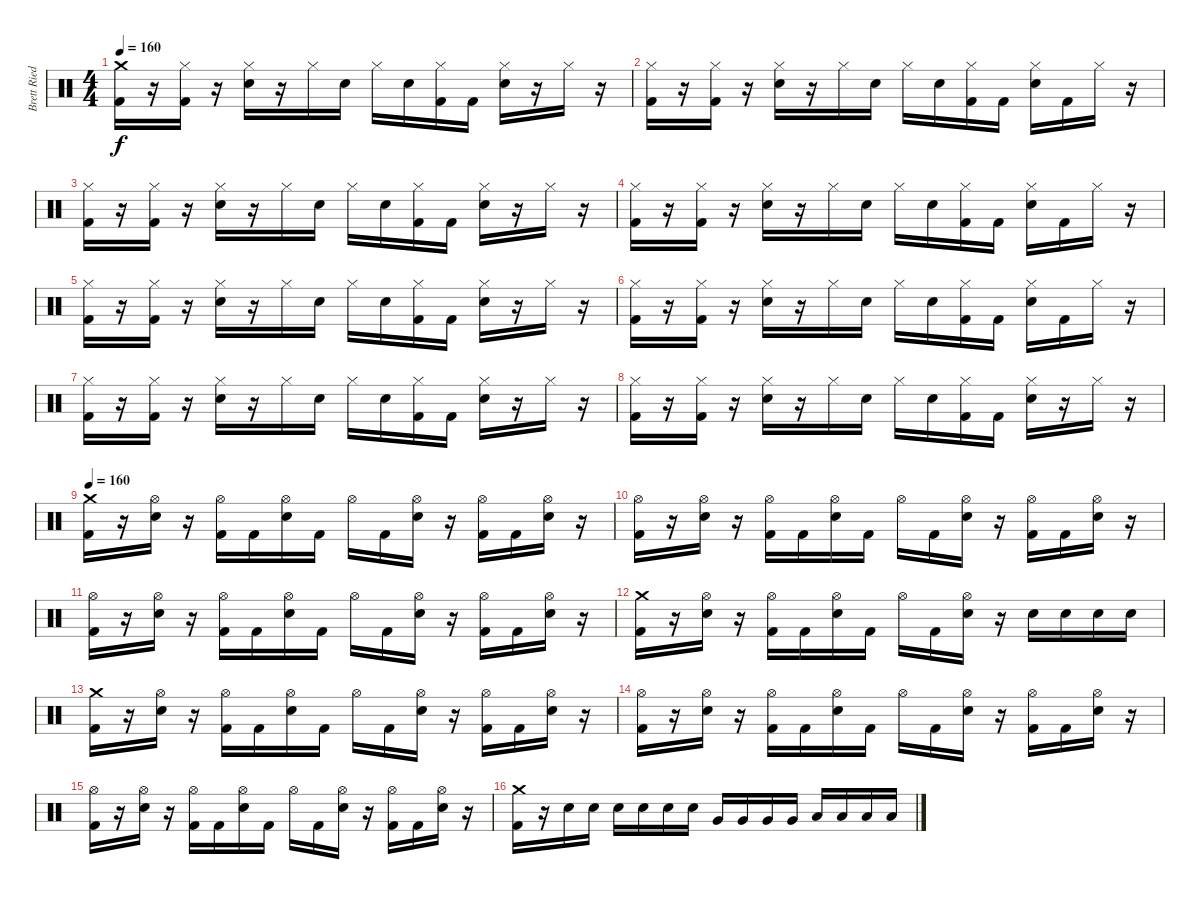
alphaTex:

\track ("Brett Ried" "Brett Ried") {instrument percussion}
\staff {score}
\articulation defaults
\ts (4 4)
\tempo 160
\tempo 140
\tempo 160
\clef neutral
\ks c
("Crash medium (hit)" "Kick (hit) 2").16{dy f} r.16 ("Hi-Hat (closed)" "Kick (hit) 2").16 r.16 ("Hi-Hat (closed)" "Snare (hit) 2").16 r.16 "Hi-Hat (closed)".16 "Snare (hit) 2".16 "Hi-Hat (closed)".16 "Snare (hit) 2".16 ("Hi-Hat (closed)" "Kick (hit) 2").16 "Kick (hit) 2".16 ("Hi-Hat (closed)" "Snare (hit) 2").16 r.16 "Hi-Hat (closed)".16 r.16 |
("Hi-Hat (closed)" "Kick (hit) 2").16 r.16 ("Hi-Hat (closed)" "Kick (hit) 2").16 r.16 ("Hi-Hat (closed)" "Snare (hit) 2").16 r.16 "Hi-Hat (closed)".16 "Snare (hit) 2".16 "Hi-Hat (closed)".16 "Snare (hit) 2".16 ("Hi-Hat (closed)" "Kick (hit) 2").16 "Kick (hit) 2".16 ("Hi-Hat (closed)" "Snare (hit) 2").16 "Kick (hit) 2".16 "Hi-Hat (closed)".16 r.16 |
("Hi-Hat (closed)" "Kick (hit) 2").16 r.16 ("Hi-Hat (closed)" "Kick (hit) 2").16 r.16 ("Hi-Hat (closed)" "Snare (hit) 2").16 r.16 "Hi-Hat (closed)".16 "Snare (hit) 2".16 "Hi-Hat (closed)".16 "Snare (hit) 2".16 ("Hi-Hat (closed)" "Kick (hit) 2").16 "Kick (hit) 2".16 ("Hi-Hat (closed)" "Snare (hit) 2").16 r.16 "Hi-Hat (closed)".16 r.16 |
("Hi-Hat (closed)" "Kick (hit) 2").16 r.16 ("Hi-Hat (closed)" "Kick (hit) 2").16 r.16 ("Hi-Hat (closed)" "Snare (hit) 2").16 r.16 "Hi-Hat (closed)".16 "Snare (hit) 2".16 "Hi-Hat (closed)".16 "Snare (hit) 2".16 ("Hi-Hat (closed)" "Kick (hit) 2").16 "Kick (hit) 2".16 ("Hi-Hat (closed)" "Snare (hit) 2").16 "Kick (hit) 2".16 "Hi-Hat (closed)".16 r.16 |
("Hi-Hat (closed)" "Kick (hit) 2").16 r.16 ("Hi-Hat (closed)" "Kick (hit) 2").16 r.16 ("Hi-Hat (closed)" "Snare (hit) 2").16 r.16 "Hi-Hat (closed)".16 "Snare (hit) 2".16 "Hi-Hat (closed)".16 "Snare (hit) 2".16 ("Hi-Hat (closed)" "Kick (hit) 2").16 "Kick (hit) 2".16 ("Hi-Hat (closed)" "Snare (hit) 2").16 r.16 "Hi-Hat (closed)".16 r.16 |
("Hi-Hat (closed)" "Kick (hit) 2").16 r.16 ("Hi-Hat (closed)" "Kick (hit) 2").16 r.16 ("Hi-Hat (closed)" "Snare (hit) 2").16 r.16 "Hi-Hat (closed)".16 "Snare (hit) 2".16 "Hi-Hat (closed)".16 "Snare (hit) 2".16 ("Hi-Hat (closed)" "Kick (hit) 2").16 "Kick (hit) 2".16 ("Hi-Hat (closed)" "Snare (hit) 2").16 "Kick (hit) 2".16 "Hi-Hat (closed)".16 r.16 |
("Hi-Hat (closed)" "Kick (hit) 2").16 r.16 ("Hi-Hat (closed)" "Kick (hit) 2").16 r.16 ("Hi-Hat (closed)" "Snare (hit) 2").16 r.16 "Hi-Hat (closed)".16 "Snare (hit) 2".16 "Hi-Hat (closed)".16 "Snare (hit) 2".16 ("Hi-Hat (closed)" "Kick (hit) 2").16 "Kick (hit) 2".16 ("Hi-Hat (closed)" "Snare (hit) 2").16 r.16 "Hi-Hat (closed)".16 r.16 |
("Hi-Hat (closed)" "Kick (hit) 2").16 r.16 ("Hi-Hat (closed)" "Kick (hit) 2").16 r.16 ("Hi-Hat (closed)" "Snare (hit) 2").16 r.16 "Hi-Hat (closed)".16 "Snare (hit) 2".16 "Hi-Hat (closed)".16 "Snare (hit) 2".16 ("Hi-Hat (closed)" "Kick (hit) 2").16 "Kick (hit) 2".16 ("Hi-Hat (closed)" "Snare (hit) 2").16 r.16 "Hi-Hat (closed)".16 r.16 |
\tempo 160
("Crash medium (hit)" "Kick (hit) 2").16 r.16 ("Hi-Hat (open)" "Snare (hit) 2").16 r.16 ("Hi-Hat (open)" "Kick (hit) 2").16 "Kick (hit) 2".16 ("Hi-Hat (open)" "Snare (hit) 2").16 "Kick (hit) 2".16 "Hi-Hat (open)".16 "Kick (hit) 2".16 ("Hi-Hat (open)" "Snare (hit) 2").16 r.16 ("Hi-Hat (open)" "Kick (hit) 2").16 "Kick (hit) 2".16 ("Hi-Hat (open)" "Snare (hit) 2").16 r.16 |
("Hi-Hat (open)" "Kick (hit) 2").16 r.16 ("Hi-Hat (open)" "Snare (hit) 2").16 r.16 ("Hi-Hat (open)" "Kick (hit) 2").16 "Kick (hit) 2".16 ("Hi-Hat (open)" "Snare (hit) 2").16 "Kick (hit) 2".16 "Hi-Hat (open)".16 "Kick (hit) 2".16 ("Hi-Hat (open)" "Snare (hit) 2").16 r.16 ("Hi-Hat (open)" "Kick (hit) 2").16 "Kick (hit) 2".16 ("Hi-Hat (open)" "Snare (hit) 2").16 r.16 |
("Hi-Hat (open)" "Kick (hit) 2").16 r.16 ("Hi-Hat (open)" "Snare (hit) 2").16 r.16 ("Hi-Hat (open)" "Kick (hit) 2").16 "Kick (hit) 2".16 ("Hi-Hat (open)" "Snare (hit) 2").16 "Kick (hit) 2".16 "Hi-Hat (open)".16 "Kick (hit) 2".16 ("Hi-Hat (open)" "Snare (hit) 2").16 r.16 ("Hi-Hat (open)" "Kick (hit) 2").16 "Kick (hit) 2".16 ("Hi-Hat (open)" "Snare (hit) 2").16 r.16 |
("Crash medium (hit)" "Kick (hit) 2").16 r.16 ("Hi-Hat (open)" "Snare (hit) 2").16 r.16 ("Hi-Hat (open)" "Kick (hit) 2").16 "Kick (hit) 2".16 ("Hi-Hat (open)" "Snare (hit) 2").16 "Kick (hit) 2".16 "Hi-Hat (open)".16 "Kick (hit) 2".16 ("Hi-Hat (open)" "Snare (hit) 2").16 r.16 "Snare (hit) 2".16 "Snare (hit) 2".16 "Snare (hit) 2".16 "Snare (hit) 2".16 |
("Crash medium (hit)" "Kick (hit) 2").16 r.16 ("Hi-Hat (open)" "Snare (hit) 2").16 r.16 ("Hi-Hat (open)" "Kick (hit) 2").16 "Kick (hit) 2".16 ("Hi-Hat (open)" "Snare (hit) 2").16 "Kick (hit) 2".16 "Hi-Hat (open)".16 "Kick (hit) 2".16 ("Hi-Hat (open)" "Snare (hit) 2").16 r.16 ("Hi-Hat (open)" "Kick (hit) 2").16 "Kick (hit) 2".16 ("Hi-Hat (open)" "Snare (hit) 2").16 r.16 |
("Hi-Hat (open)" "Kick (hit) 2").16 r.16 ("Hi-Hat (open)" "Snare (hit) 2").16 r.16 ("Hi-Hat (open)" "Kick (hit) 2").16 "Kick (hit) 2".16 ("Hi-Hat (open)" "Snare (hit) 2").16 "Kick (hit) 2".16 "Hi-Hat (open)".16 "Kick (hit) 2".16 ("Hi-Hat (open)" "Snare (hit) 2").16 r.16 ("Hi-Hat (open)" "Kick (hit) 2").16 "Kick (hit) 2".16 ("Hi-Hat (open)" "Snare (hit) 2").16 r.16 |
("Hi-Hat (open)" "Kick (hit) 2").16 r.16 ("Hi-Hat (open)" "Snare (hit) 2").16 r.16 ("Hi-Hat (open)" "Kick (hit) 2").16 "Kick (hit) 2".16 ("Hi-Hat (open)" "Snare (hit) 2").16 "Kick (hit) 2".16 "Hi-Hat (open)".16 "Kick (hit) 2".16 ("Hi-Hat (open)" "Snare (hit) 2").16 r.16 ("Hi-Hat (open)" "Kick (hit) 2").16 "Kick (hit) 2".16 ("Hi-Hat (open)" "Snare (hit) 2").16 r.16 |
("Crash medium (hit)" "Kick (hit) 2").16 r.16 "Snare (hit) 2".16 "Snare (hit) 2".16 "Snare (hit) 2".16 "Snare (hit) 2".16 "Snare (hit) 2".16 "Snare (hit) 2".16 "Very Low Tom (hit)".16 "Very Low Tom (hit)".16 "Very Low Tom (hit)".16 "Very Low Tom (hit)".16 "Low Floor Tom (hit)".16 "Low Floor Tom (hit)".16 "Low Floor Tom (hit)".16 "Low Floor Tom (hit)".16
